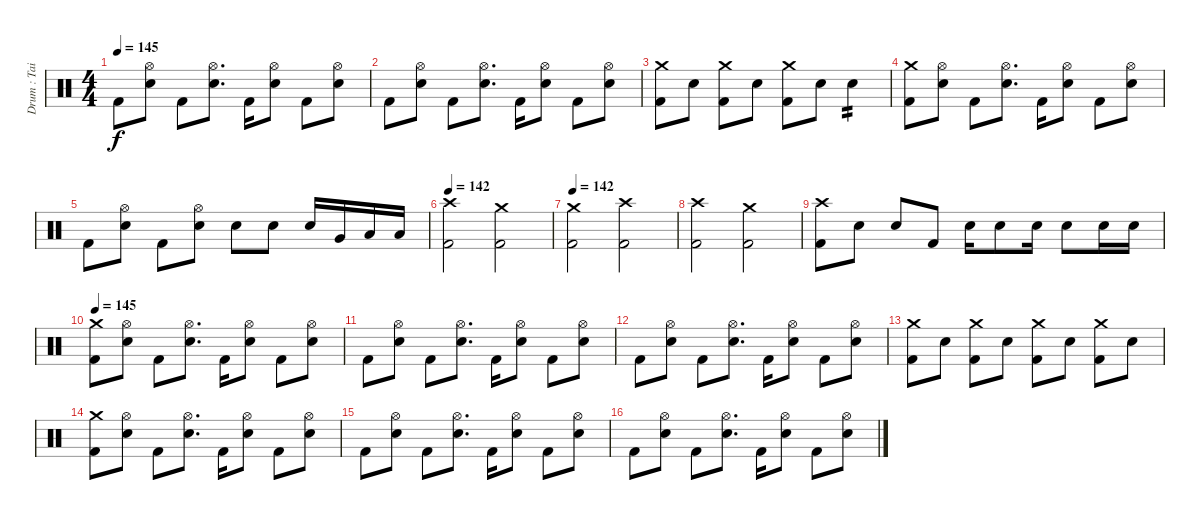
\track ("Drum : Tainaka Ritsu" "Drum : Tai") {instrument percussion}
\staff {score}
\articulation defaults
\ts (4 4)
\tempo 145
\clef neutral
\ks c "Kick (hit) 2".8{dy f}
("Hi-Hat (open)" "Electric Snare (hit)").8 "Kick (hit) 2".8 ("Hi-Hat (open)" "Electric Snare (hit)").8{d} "Kick (hit) 2".16 ("Hi-Hat (open)" "Electric Snare (hit)").8 "Kick (hit) 2".8 ("Hi-Hat (open)" "Electric Snare (hit)").8 |
"Kick (hit) 2".8 ("Hi-Hat (open)" "Electric Snare (hit)").8 "Kick (hit) 2".8 ("Hi-Hat (open)" "Electric Snare (hit)").8{d} "Kick (hit) 2".16 ("Hi-Hat (open)" "Electric Snare (hit)").8 "Kick (hit) 2".8 ("Hi-Hat (open)" "Electric Snare (hit)").8 |
("Crash medium (hit)" "Kick (hit) 2").8 "Electric Snare (hit)".8 ("Crash medium (hit)" "Kick (hit) 2").8 "Electric Snare (hit)".8 ("Crash medium (hit)" "Kick (hit) 2").8 "Electric Snare (hit)".8 "Electric Snare (hit)".4{tp 2} |
("Crash medium (hit)" "Kick (hit) 2").8 ("Hi-Hat (open)" "Electric Snare (hit)").8 "Kick (hit) 2".8 ("Hi-Hat (open)" "Electric Snare (hit)").8{d} "Kick (hit) 2".16 ("Hi-Hat (open)" "Electric Snare (hit)").8 "Kick (hit) 2".8 ("Hi-Hat (open)" "Electric Snare (hit)").8 |
"Kick (hit) 2".8 ("Hi-Hat (open)" "Electric Snare (hit)").8 "Kick (hit) 2".8 ("Hi-Hat (open)" "Electric Snare (hit)").8 "Electric Snare (hit)".8 "Electric Snare (hit)".8 "Electric Snare (hit)".16 "Very Low Tom (hit)".16 "Low Floor Tom (hit)".16 "Low Floor Tom (hit)".16 |
\tempo 142
("Crash high (hit)" "Kick (hit) 2").2 ("Crash medium (hit)" "Kick (hit) 2").2 |
\tempo 142
("Crash medium (hit)" "Kick (hit) 2").2 ("Crash high (hit)" "Kick (hit) 2").2 |
("Crash high (hit)" "Kick (hit) 2").2 ("Crash medium (hit)" "Kick (hit) 2").2 |
("Crash high (hit)" "Kick (hit) 2").8 "Electric Snare (hit)".8 "Electric Snare (hit)".8 "Kick (hit) 2".8 "Electric Snare (hit)".16 "Electric Snare (hit)".8 "Electric Snare (hit)".16 "Electric Snare (hit)".8 "Electric Snare (hit)".16 "Electric Snare (hit)".16 |
\tempo 145
("Crash medium (hit)" "Kick (hit) 2").8 ("Hi-Hat (open)" "Electric Snare (hit)").8 "Kick (hit) 2".8 ("Hi-Hat (open)" "Electric Snare (hit)").8{d} "Kick (hit) 2".16 ("Hi-Hat (open)" "Electric Snare (hit)").8 "Kick (hit) 2".8 ("Hi-Hat (open)" "Electric Snare (hit)").8 |
"Kick (hit) 2".8 ("Hi-Hat (open)" "Electric Snare (hit)").8 "Kick (hit) 2".8 ("Hi-Hat (open)" "Electric Snare (hit)").8{d} "Kick (hit) 2".16 ("Hi-Hat (open)" "Electric Snare (hit)").8 "Kick (hit) 2".8 ("Hi-Hat (open)" "Electric Snare (hit)").8 |
"Kick (hit) 2".8 ("Hi-Hat (open)" "Electric Snare (hit)").8 "Kick (hit) 2".8 ("Hi-Hat (open)" "Electric Snare (hit)").8{d} "Kick (hit) 2".16 ("Hi-Hat (open)" "Electric Snare (hit)").8 "Kick (hit) 2".8 ("Hi-Hat (open)" "Electric Snare (hit)").8 |
("Crash medium (hit)" "Kick (hit) 2").8 "Electric Snare (hit)".8 ("Crash medium (hit)" "Kick (hit) 2").8 "Electric Snare (hit)".8 ("Crash medium (hit)" "Kick (hit) 2").8 "Electric Snare (hit)".8 ("Crash medium (hit)" "Kick (hit) 2").8 "Electric Snare (hit)".8 |
("Crash medium (hit)" "Kick (hit) 2").8 ("Hi-Hat (open)" "Electric Snare (hit)").8 "Kick (hit) 2".8 ("Hi-Hat (open)" "Electric Snare (hit)").8{d} "Kick (hit) 2".16 ("Hi-Hat (open)" "Electric Snare (hit)").8 "Kick (hit) 2".8 ("Hi-Hat (open)" "Electric Snare (hit)").8 |
"Kick (hit) 2".8 ("Hi-Hat (open)" "Electric Snare (hit)").8 "Kick (hit) 2".8 ("Hi-Hat (open)" "Electric Snare (hit)").8{d} "Kick (hit) 2".16 ("Hi-Hat (open)" "Electric Snare (hit)").8 "Kick (hit) 2".8 ("Hi-Hat (open)" "Electric Snare (hit)").8 |
"Kick (hit) 2".8 ("Hi-Hat (open)" "Electric Snare (hit)").8 "Kick (hit) 2".8 ("Hi-Hat (open)" "Electric Snare (hit)").8{d} "Kick (hit) 2".16 ("Hi-Hat (open)" "Electric Snare (hit)").8 "Kick (hit) 2".8 ("Hi-Hat (open)" "Electric Snare (hit)").8
